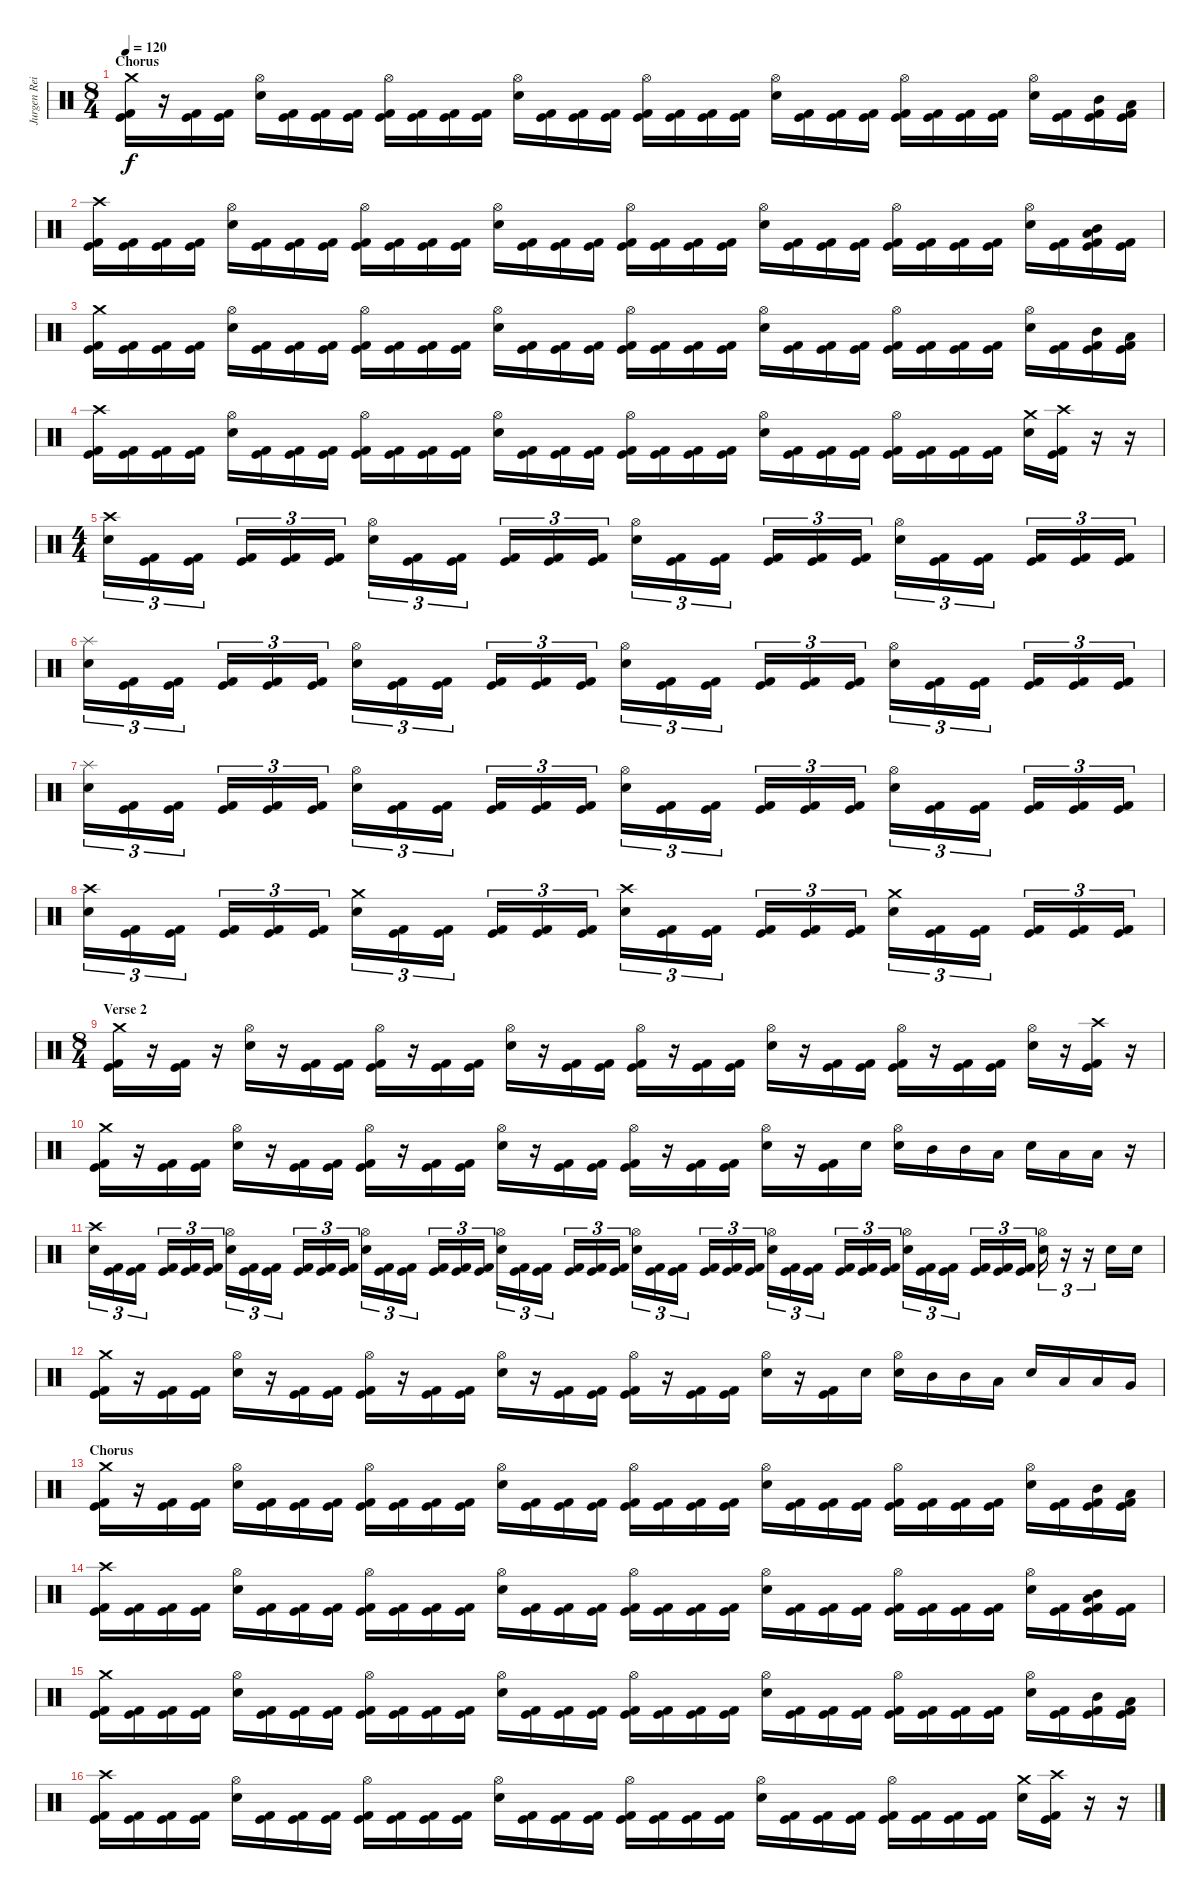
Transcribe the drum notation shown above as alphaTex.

\track ("Jurgen Reil" "Jurgen Rei") {instrument percussion}
\staff {score}
\articulation defaults
\ts (8 4)
\section ("" "Chorus")
\tempo 120
\clef neutral
\ks c
("Crash medium (hit)" "Kick (hit)" "Kick (hit) 2").16{dy f} r.16 ("Kick (hit)" "Kick (hit) 2").16 ("Kick (hit)" "Kick (hit) 2").16 ("Hi-Hat (open)" "Electric Snare (hit)").16 ("Kick (hit)" "Kick (hit) 2").16 ("Kick (hit)" "Kick (hit) 2").16 ("Kick (hit)" "Kick (hit) 2").16 ("Hi-Hat (open)" "Kick (hit)" "Kick (hit) 2").16 ("Kick (hit)" "Kick (hit) 2").16 ("Kick (hit)" "Kick (hit) 2").16 ("Kick (hit)" "Kick (hit) 2").16 ("Hi-Hat (open)" "Electric Snare (hit)").16 ("Kick (hit)" "Kick (hit) 2").16 ("Kick (hit)" "Kick (hit) 2").16 ("Kick (hit)" "Kick (hit) 2").16 ("Hi-Hat (open)" "Kick (hit)" "Kick (hit) 2").16 ("Kick (hit)" "Kick (hit) 2").16 ("Kick (hit)" "Kick (hit) 2").16 ("Kick (hit)" "Kick (hit) 2").16 ("Hi-Hat (open)" "Electric Snare (hit)").16 ("Kick (hit)" "Kick (hit) 2").16 ("Kick (hit)" "Kick (hit) 2").16 ("Kick (hit)" "Kick (hit) 2").16 ("Hi-Hat (open)" "Kick (hit)" "Kick (hit) 2").16 ("Kick (hit)" "Kick (hit) 2").16 ("Kick (hit)" "Kick (hit) 2").16 ("Kick (hit)" "Kick (hit) 2").16 ("Hi-Hat (open)" "Electric Snare (hit)").16 ("Kick (hit)" "Kick (hit) 2").16 ("Mid Tom (hit)" "Kick (hit)" "Kick (hit) 2").16 ("Low Tom (hit)" "Kick (hit)" "Kick (hit) 2").16 |
("Crash high (hit)" "Kick (hit)" "Kick (hit) 2").16 ("Kick (hit)" "Kick (hit) 2").16 ("Kick (hit)" "Kick (hit) 2").16 ("Kick (hit)" "Kick (hit) 2").16 ("Hi-Hat (open)" "Electric Snare (hit)").16 ("Kick (hit)" "Kick (hit) 2").16 ("Kick (hit)" "Kick (hit) 2").16 ("Kick (hit)" "Kick (hit) 2").16 ("Hi-Hat (open)" "Kick (hit)" "Kick (hit) 2").16 ("Kick (hit)" "Kick (hit) 2").16 ("Kick (hit)" "Kick (hit) 2").16 ("Kick (hit)" "Kick (hit) 2").16 ("Hi-Hat (open)" "Electric Snare (hit)").16 ("Kick (hit)" "Kick (hit) 2").16 ("Kick (hit)" "Kick (hit) 2").16 ("Kick (hit)" "Kick (hit) 2").16 ("Hi-Hat (open)" "Kick (hit)" "Kick (hit) 2").16 ("Kick (hit)" "Kick (hit) 2").16 ("Kick (hit)" "Kick (hit) 2").16 ("Kick (hit)" "Kick (hit) 2").16 ("Hi-Hat (open)" "Electric Snare (hit)").16 ("Kick (hit)" "Kick (hit) 2").16 ("Kick (hit)" "Kick (hit) 2").16 ("Kick (hit)" "Kick (hit) 2").16 ("Hi-Hat (open)" "Kick (hit)" "Kick (hit) 2").16 ("Kick (hit)" "Kick (hit) 2").16 ("Kick (hit)" "Kick (hit) 2").16 ("Kick (hit)" "Kick (hit) 2").16 ("Hi-Hat (open)" "Electric Snare (hit)").16 ("Kick (hit)" "Kick (hit) 2").16 ("Low Tom (hit)" "Mid Tom (hit)" "Kick (hit)" "Kick (hit) 2").16 ("Kick (hit)" "Kick (hit) 2").16 |
("Crash medium (hit)" "Kick (hit)" "Kick (hit) 2").16 ("Kick (hit)" "Kick (hit) 2").16 ("Kick (hit)" "Kick (hit) 2").16 ("Kick (hit)" "Kick (hit) 2").16 ("Hi-Hat (open)" "Electric Snare (hit)").16 ("Kick (hit)" "Kick (hit) 2").16 ("Kick (hit)" "Kick (hit) 2").16 ("Kick (hit)" "Kick (hit) 2").16 ("Hi-Hat (open)" "Kick (hit)" "Kick (hit) 2").16 ("Kick (hit)" "Kick (hit) 2").16 ("Kick (hit)" "Kick (hit) 2").16 ("Kick (hit)" "Kick (hit) 2").16 ("Hi-Hat (open)" "Electric Snare (hit)").16 ("Kick (hit)" "Kick (hit) 2").16 ("Kick (hit)" "Kick (hit) 2").16 ("Kick (hit)" "Kick (hit) 2").16 ("Hi-Hat (open)" "Kick (hit)" "Kick (hit) 2").16 ("Kick (hit)" "Kick (hit) 2").16 ("Kick (hit)" "Kick (hit) 2").16 ("Kick (hit)" "Kick (hit) 2").16 ("Hi-Hat (open)" "Electric Snare (hit)").16 ("Kick (hit)" "Kick (hit) 2").16 ("Kick (hit)" "Kick (hit) 2").16 ("Kick (hit)" "Kick (hit) 2").16 ("Hi-Hat (open)" "Kick (hit)" "Kick (hit) 2").16 ("Kick (hit)" "Kick (hit) 2").16 ("Kick (hit)" "Kick (hit) 2").16 ("Kick (hit)" "Kick (hit) 2").16 ("Hi-Hat (open)" "Electric Snare (hit)").16 ("Kick (hit)" "Kick (hit) 2").16 ("Mid Tom (hit)" "Kick (hit)" "Kick (hit) 2").16 ("Low Tom (hit)" "Kick (hit)" "Kick (hit) 2").16 |
("Crash high (hit)" "Kick (hit)" "Kick (hit) 2").16 ("Kick (hit)" "Kick (hit) 2").16 ("Kick (hit)" "Kick (hit) 2").16 ("Kick (hit)" "Kick (hit) 2").16 ("Hi-Hat (open)" "Electric Snare (hit)").16 ("Kick (hit)" "Kick (hit) 2").16 ("Kick (hit)" "Kick (hit) 2").16 ("Kick (hit)" "Kick (hit) 2").16 ("Hi-Hat (open)" "Kick (hit)" "Kick (hit) 2").16 ("Kick (hit)" "Kick (hit) 2").16 ("Kick (hit)" "Kick (hit) 2").16 ("Kick (hit)" "Kick (hit) 2").16 ("Hi-Hat (open)" "Electric Snare (hit)").16 ("Kick (hit)" "Kick (hit) 2").16 ("Kick (hit)" "Kick (hit) 2").16 ("Kick (hit)" "Kick (hit) 2").16 ("Hi-Hat (open)" "Kick (hit)" "Kick (hit) 2").16 ("Kick (hit)" "Kick (hit) 2").16 ("Kick (hit)" "Kick (hit) 2").16 ("Kick (hit)" "Kick (hit) 2").16 ("Hi-Hat (open)" "Electric Snare (hit)").16 ("Kick (hit)" "Kick (hit) 2").16 ("Kick (hit)" "Kick (hit) 2").16 ("Kick (hit)" "Kick (hit) 2").16 ("Hi-Hat (open)" "Kick (hit)" "Kick (hit) 2").16 ("Kick (hit)" "Kick (hit) 2").16 ("Kick (hit)" "Kick (hit) 2").16 ("Kick (hit)" "Kick (hit) 2").16 ("Crash medium (hit)" "Electric Snare (hit)").16 ("Crash high (hit)" "Kick (hit)" "Kick (hit) 2").16 r.16 r.16 |
\ts (4 4)
("Crash high (hit)" "Electric Snare (hit)").16{tu (3 2)} ("Kick (hit)" "Kick (hit) 2").16{tu (3 2)} ("Kick (hit)" "Kick (hit) 2").16{tu (3 2)} ("Kick (hit)" "Kick (hit) 2").16{tu (3 2)} ("Kick (hit)" "Kick (hit) 2").16{tu (3 2)} ("Kick (hit)" "Kick (hit) 2").16{tu (3 2)} ("Hi-Hat (open)" "Electric Snare (hit)").16{tu (3 2)} ("Kick (hit)" "Kick (hit) 2").16{tu (3 2)} ("Kick (hit)" "Kick (hit) 2").16{tu (3 2)} ("Kick (hit)" "Kick (hit) 2").16{tu (3 2)} ("Kick (hit)" "Kick (hit) 2").16{tu (3 2)} ("Kick (hit)" "Kick (hit) 2").16{tu (3 2)} ("Hi-Hat (open)" "Electric Snare (hit)").16{tu (3 2)} ("Kick (hit)" "Kick (hit) 2").16{tu (3 2)} ("Kick (hit)" "Kick (hit) 2").16{tu (3 2)} ("Kick (hit)" "Kick (hit) 2").16{tu (3 2)} ("Kick (hit)" "Kick (hit) 2").16{tu (3 2)} ("Kick (hit)" "Kick (hit) 2").16{tu (3 2)} ("Hi-Hat (open)" "Electric Snare (hit)").16{tu (3 2)} ("Kick (hit)" "Kick (hit) 2").16{tu (3 2)} ("Kick (hit)" "Kick (hit) 2").16{tu (3 2)} ("Kick (hit)" "Kick (hit) 2").16{tu (3 2)} ("Kick (hit)" "Kick (hit) 2").16{tu (3 2)} ("Kick (hit)" "Kick (hit) 2").16{tu (3 2)} |
("Splash (hit)" "Electric Snare (hit)").16{tu (3 2)} ("Kick (hit)" "Kick (hit) 2").16{tu (3 2)} ("Kick (hit)" "Kick (hit) 2").16{tu (3 2)} ("Kick (hit)" "Kick (hit) 2").16{tu (3 2)} ("Kick (hit)" "Kick (hit) 2").16{tu (3 2)} ("Kick (hit)" "Kick (hit) 2").16{tu (3 2)} ("Hi-Hat (open)" "Electric Snare (hit)").16{tu (3 2)} ("Kick (hit)" "Kick (hit) 2").16{tu (3 2)} ("Kick (hit)" "Kick (hit) 2").16{tu (3 2)} ("Kick (hit)" "Kick (hit) 2").16{tu (3 2)} ("Kick (hit)" "Kick (hit) 2").16{tu (3 2)} ("Kick (hit)" "Kick (hit) 2").16{tu (3 2)} ("Hi-Hat (open)" "Electric Snare (hit)").16{tu (3 2)} ("Kick (hit)" "Kick (hit) 2").16{tu (3 2)} ("Kick (hit)" "Kick (hit) 2").16{tu (3 2)} ("Kick (hit)" "Kick (hit) 2").16{tu (3 2)} ("Kick (hit)" "Kick (hit) 2").16{tu (3 2)} ("Kick (hit)" "Kick (hit) 2").16{tu (3 2)} ("Hi-Hat (open)" "Electric Snare (hit)").16{tu (3 2)} ("Kick (hit)" "Kick (hit) 2").16{tu (3 2)} ("Kick (hit)" "Kick (hit) 2").16{tu (3 2)} ("Kick (hit)" "Kick (hit) 2").16{tu (3 2)} ("Kick (hit)" "Kick (hit) 2").16{tu (3 2)} ("Kick (hit)" "Kick (hit) 2").16{tu (3 2)} |
("Splash (hit)" "Electric Snare (hit)").16{tu (3 2)} ("Kick (hit)" "Kick (hit) 2").16{tu (3 2)} ("Kick (hit)" "Kick (hit) 2").16{tu (3 2)} ("Kick (hit)" "Kick (hit) 2").16{tu (3 2)} ("Kick (hit)" "Kick (hit) 2").16{tu (3 2)} ("Kick (hit)" "Kick (hit) 2").16{tu (3 2)} ("Hi-Hat (open)" "Electric Snare (hit)").16{tu (3 2)} ("Kick (hit)" "Kick (hit) 2").16{tu (3 2)} ("Kick (hit)" "Kick (hit) 2").16{tu (3 2)} ("Kick (hit)" "Kick (hit) 2").16{tu (3 2)} ("Kick (hit)" "Kick (hit) 2").16{tu (3 2)} ("Kick (hit)" "Kick (hit) 2").16{tu (3 2)} ("Hi-Hat (open)" "Electric Snare (hit)").16{tu (3 2)} ("Kick (hit)" "Kick (hit) 2").16{tu (3 2)} ("Kick (hit)" "Kick (hit) 2").16{tu (3 2)} ("Kick (hit)" "Kick (hit) 2").16{tu (3 2)} ("Kick (hit)" "Kick (hit) 2").16{tu (3 2)} ("Kick (hit)" "Kick (hit) 2").16{tu (3 2)} ("Hi-Hat (open)" "Electric Snare (hit)").16{tu (3 2)} ("Kick (hit)" "Kick (hit) 2").16{tu (3 2)} ("Kick (hit)" "Kick (hit) 2").16{tu (3 2)} ("Kick (hit)" "Kick (hit) 2").16{tu (3 2)} ("Kick (hit)" "Kick (hit) 2").16{tu (3 2)} ("Kick (hit)" "Kick (hit) 2").16{tu (3 2)} |
("Crash high (hit)" "Electric Snare (hit)").16{tu (3 2)} ("Kick (hit)" "Kick (hit) 2").16{tu (3 2)} ("Kick (hit)" "Kick (hit) 2").16{tu (3 2)} ("Kick (hit)" "Kick (hit) 2").16{tu (3 2)} ("Kick (hit)" "Kick (hit) 2").16{tu (3 2)} ("Kick (hit)" "Kick (hit) 2").16{tu (3 2)} ("Crash medium (hit)" "Electric Snare (hit)").16{tu (3 2)} ("Kick (hit)" "Kick (hit) 2").16{tu (3 2)} ("Kick (hit)" "Kick (hit) 2").16{tu (3 2)} ("Kick (hit)" "Kick (hit) 2").16{tu (3 2)} ("Kick (hit)" "Kick (hit) 2").16{tu (3 2)} ("Kick (hit)" "Kick (hit) 2").16{tu (3 2)} ("Crash high (hit)" "Electric Snare (hit)").16{tu (3 2)} ("Kick (hit)" "Kick (hit) 2").16{tu (3 2)} ("Kick (hit)" "Kick (hit) 2").16{tu (3 2)} ("Kick (hit)" "Kick (hit) 2").16{tu (3 2)} ("Kick (hit)" "Kick (hit) 2").16{tu (3 2)} ("Kick (hit)" "Kick (hit) 2").16{tu (3 2)} ("Crash medium (hit)" "Electric Snare (hit)").16{tu (3 2)} ("Kick (hit)" "Kick (hit) 2").16{tu (3 2)} ("Kick (hit)" "Kick (hit) 2").16{tu (3 2)} ("Kick (hit)" "Kick (hit) 2").16{tu (3 2)} ("Kick (hit)" "Kick (hit) 2").16{tu (3 2)} ("Kick (hit)" "Kick (hit) 2").16{tu (3 2)} |
\ts (8 4)
\section ("" "Verse 2")
("Crash medium (hit)" "Kick (hit)" "Kick (hit) 2").16 r.16 ("Kick (hit)" "Kick (hit) 2").16 r.16 ("Hi-Hat (open)" "Electric Snare (hit)").16 r.16 ("Kick (hit)" "Kick (hit) 2").16 ("Kick (hit)" "Kick (hit) 2").16 ("Hi-Hat (open)" "Kick (hit)" "Kick (hit) 2").16 r.16 ("Kick (hit)" "Kick (hit) 2").16 ("Kick (hit)" "Kick (hit) 2").16 ("Hi-Hat (open)" "Electric Snare (hit)").16 r.16 ("Kick (hit)" "Kick (hit) 2").16 ("Kick (hit)" "Kick (hit) 2").16 ("Hi-Hat (open)" "Kick (hit)" "Kick (hit) 2").16 r.16 ("Kick (hit)" "Kick (hit) 2").16 ("Kick (hit)" "Kick (hit) 2").16 ("Hi-Hat (open)" "Electric Snare (hit)").16 r.16 ("Kick (hit)" "Kick (hit) 2").16 ("Kick (hit)" "Kick (hit) 2").16 ("Hi-Hat (open)" "Kick (hit)" "Kick (hit) 2").16 r.16 ("Kick (hit)" "Kick (hit) 2").16 ("Kick (hit)" "Kick (hit) 2").16 ("Hi-Hat (open)" "Electric Snare (hit)").16 r.16 ("Crash high (hit)" "Kick (hit)" "Kick (hit) 2").16 r.16 |
("Crash medium (hit)" "Kick (hit)" "Kick (hit) 2").16 r.16 ("Kick (hit)" "Kick (hit) 2").16 ("Kick (hit)" "Kick (hit) 2").16 ("Hi-Hat (open)" "Electric Snare (hit)").16 r.16 ("Kick (hit)" "Kick (hit) 2").16 ("Kick (hit)" "Kick (hit) 2").16 ("Hi-Hat (open)" "Kick (hit)" "Kick (hit) 2").16 r.16 ("Kick (hit)" "Kick (hit) 2").16 ("Kick (hit)" "Kick (hit) 2").16 ("Hi-Hat (open)" "Electric Snare (hit)").16 r.16 ("Kick (hit)" "Kick (hit) 2").16 ("Kick (hit)" "Kick (hit) 2").16 ("Hi-Hat (open)" "Kick (hit)" "Kick (hit) 2").16 r.16 ("Kick (hit)" "Kick (hit) 2").16 ("Kick (hit)" "Kick (hit) 2").16 ("Hi-Hat (open)" "Electric Snare (hit)").16 r.16 ("Kick (hit)" "Kick (hit) 2").16 "Electric Snare (hit)".16 ("Hi-Hat (open)" "Electric Snare (hit)").16 "Mid Tom (hit)".16 "Mid Tom (hit)".16 "Low Tom (hit)".16 "Electric Snare (hit)".16 "Low Tom (hit)".16 "Low Tom (hit)".16 r.16 |
("Crash high (hit)" "Electric Snare (hit)").16{tu (3 2)} ("Kick (hit)" "Kick (hit) 2").16{tu (3 2)} ("Kick (hit)" "Kick (hit) 2").16{tu (3 2)} ("Kick (hit)" "Kick (hit) 2").16{tu (3 2)} ("Kick (hit)" "Kick (hit) 2").16{tu (3 2)} ("Kick (hit)" "Kick (hit) 2").16{tu (3 2)} ("Hi-Hat (open)" "Electric Snare (hit)").16{tu (3 2)} ("Kick (hit)" "Kick (hit) 2").16{tu (3 2)} ("Kick (hit)" "Kick (hit) 2").16{tu (3 2)} ("Kick (hit)" "Kick (hit) 2").16{tu (3 2)} ("Kick (hit)" "Kick (hit) 2").16{tu (3 2)} ("Kick (hit)" "Kick (hit) 2").16{tu (3 2)} ("Hi-Hat (open)" "Electric Snare (hit)").16{tu (3 2)} ("Kick (hit)" "Kick (hit) 2").16{tu (3 2)} ("Kick (hit)" "Kick (hit) 2").16{tu (3 2)} ("Kick (hit)" "Kick (hit) 2").16{tu (3 2)} ("Kick (hit)" "Kick (hit) 2").16{tu (3 2)} ("Kick (hit)" "Kick (hit) 2").16{tu (3 2)} ("Hi-Hat (open)" "Electric Snare (hit)").16{tu (3 2)} ("Kick (hit)" "Kick (hit) 2").16{tu (3 2)} ("Kick (hit)" "Kick (hit) 2").16{tu (3 2)} ("Kick (hit)" "Kick (hit) 2").16{tu (3 2)} ("Kick (hit)" "Kick (hit) 2").16{tu (3 2)} ("Kick (hit)" "Kick (hit) 2").16{tu (3 2)} ("Hi-Hat (open)" "Electric Snare (hit)").16{tu (3 2)} ("Kick (hit)" "Kick (hit) 2").16{tu (3 2)} ("Kick (hit)" "Kick (hit) 2").16{tu (3 2)} ("Kick (hit)" "Kick (hit) 2").16{tu (3 2)} ("Kick (hit)" "Kick (hit) 2").16{tu (3 2)} ("Kick (hit)" "Kick (hit) 2").16{tu (3 2)} ("Hi-Hat (open)" "Electric Snare (hit)").16{tu (3 2)} ("Kick (hit)" "Kick (hit) 2").16{tu (3 2)} ("Kick (hit)" "Kick (hit) 2").16{tu (3 2)} ("Kick (hit)" "Kick (hit) 2").16{tu (3 2)} ("Kick (hit)" "Kick (hit) 2").16{tu (3 2)} ("Kick (hit)" "Kick (hit) 2").16{tu (3 2)} ("Hi-Hat (open)" "Electric Snare (hit)").16{tu (3 2)} ("Kick (hit)" "Kick (hit) 2").16{tu (3 2)} ("Kick (hit)" "Kick (hit) 2").16{tu (3 2)} ("Kick (hit)" "Kick (hit) 2").16{tu (3 2)} ("Kick (hit)" "Kick (hit) 2").16{tu (3 2)} ("Kick (hit)" "Kick (hit) 2").16{tu (3 2)} ("Hi-Hat (open)" "Electric Snare (hit)").16{tu (3 2)} r.16{tu (3 2)} r.16{tu (3 2)} "Electric Snare (hit)".16 "Electric Snare (hit)".16 |
("Crash medium (hit)" "Kick (hit)" "Kick (hit) 2").16 r.16 ("Kick (hit)" "Kick (hit) 2").16 ("Kick (hit)" "Kick (hit) 2").16 ("Hi-Hat (open)" "Electric Snare (hit)").16 r.16 ("Kick (hit)" "Kick (hit) 2").16 ("Kick (hit)" "Kick (hit) 2").16 ("Hi-Hat (open)" "Kick (hit)" "Kick (hit) 2").16 r.16 ("Kick (hit)" "Kick (hit) 2").16 ("Kick (hit)" "Kick (hit) 2").16 ("Hi-Hat (open)" "Electric Snare (hit)").16 r.16 ("Kick (hit)" "Kick (hit) 2").16 ("Kick (hit)" "Kick (hit) 2").16 ("Hi-Hat (open)" "Kick (hit)" "Kick (hit) 2").16 r.16 ("Kick (hit)" "Kick (hit) 2").16 ("Kick (hit)" "Kick (hit) 2").16 ("Hi-Hat (open)" "Electric Snare (hit)").16 r.16 ("Kick (hit)" "Kick (hit) 2").16 "Electric Snare (hit)".16 ("Hi-Hat (open)" "Electric Snare (hit)").16 "Mid Tom (hit)".16 "Mid Tom (hit)".16 "Low Tom (hit)".16 "Electric Snare (hit)".16 "Low Tom (hit)".16 "Low Tom (hit)".16 "Very Low Tom (hit)".16 |
\section ("" "Chorus")
("Crash medium (hit)" "Kick (hit)" "Kick (hit) 2").16 r.16 ("Kick (hit)" "Kick (hit) 2").16 ("Kick (hit)" "Kick (hit) 2").16 ("Hi-Hat (open)" "Electric Snare (hit)").16 ("Kick (hit)" "Kick (hit) 2").16 ("Kick (hit)" "Kick (hit) 2").16 ("Kick (hit)" "Kick (hit) 2").16 ("Hi-Hat (open)" "Kick (hit)" "Kick (hit) 2").16 ("Kick (hit)" "Kick (hit) 2").16 ("Kick (hit)" "Kick (hit) 2").16 ("Kick (hit)" "Kick (hit) 2").16 ("Hi-Hat (open)" "Electric Snare (hit)").16 ("Kick (hit)" "Kick (hit) 2").16 ("Kick (hit)" "Kick (hit) 2").16 ("Kick (hit)" "Kick (hit) 2").16 ("Hi-Hat (open)" "Kick (hit)" "Kick (hit) 2").16 ("Kick (hit)" "Kick (hit) 2").16 ("Kick (hit)" "Kick (hit) 2").16 ("Kick (hit)" "Kick (hit) 2").16 ("Hi-Hat (open)" "Electric Snare (hit)").16 ("Kick (hit)" "Kick (hit) 2").16 ("Kick (hit)" "Kick (hit) 2").16 ("Kick (hit)" "Kick (hit) 2").16 ("Hi-Hat (open)" "Kick (hit)" "Kick (hit) 2").16 ("Kick (hit)" "Kick (hit) 2").16 ("Kick (hit)" "Kick (hit) 2").16 ("Kick (hit)" "Kick (hit) 2").16 ("Hi-Hat (open)" "Electric Snare (hit)").16 ("Kick (hit)" "Kick (hit) 2").16 ("Mid Tom (hit)" "Kick (hit)" "Kick (hit) 2").16 ("Low Tom (hit)" "Kick (hit)" "Kick (hit) 2").16 |
("Crash high (hit)" "Kick (hit)" "Kick (hit) 2").16 ("Kick (hit)" "Kick (hit) 2").16 ("Kick (hit)" "Kick (hit) 2").16 ("Kick (hit)" "Kick (hit) 2").16 ("Hi-Hat (open)" "Electric Snare (hit)").16 ("Kick (hit)" "Kick (hit) 2").16 ("Kick (hit)" "Kick (hit) 2").16 ("Kick (hit)" "Kick (hit) 2").16 ("Hi-Hat (open)" "Kick (hit)" "Kick (hit) 2").16 ("Kick (hit)" "Kick (hit) 2").16 ("Kick (hit)" "Kick (hit) 2").16 ("Kick (hit)" "Kick (hit) 2").16 ("Hi-Hat (open)" "Electric Snare (hit)").16 ("Kick (hit)" "Kick (hit) 2").16 ("Kick (hit)" "Kick (hit) 2").16 ("Kick (hit)" "Kick (hit) 2").16 ("Hi-Hat (open)" "Kick (hit)" "Kick (hit) 2").16 ("Kick (hit)" "Kick (hit) 2").16 ("Kick (hit)" "Kick (hit) 2").16 ("Kick (hit)" "Kick (hit) 2").16 ("Hi-Hat (open)" "Electric Snare (hit)").16 ("Kick (hit)" "Kick (hit) 2").16 ("Kick (hit)" "Kick (hit) 2").16 ("Kick (hit)" "Kick (hit) 2").16 ("Hi-Hat (open)" "Kick (hit)" "Kick (hit) 2").16 ("Kick (hit)" "Kick (hit) 2").16 ("Kick (hit)" "Kick (hit) 2").16 ("Kick (hit)" "Kick (hit) 2").16 ("Hi-Hat (open)" "Electric Snare (hit)").16 ("Kick (hit)" "Kick (hit) 2").16 ("Low Tom (hit)" "Mid Tom (hit)" "Kick (hit)" "Kick (hit) 2").16 ("Kick (hit)" "Kick (hit) 2").16 |
("Crash medium (hit)" "Kick (hit)" "Kick (hit) 2").16 ("Kick (hit)" "Kick (hit) 2").16 ("Kick (hit)" "Kick (hit) 2").16 ("Kick (hit)" "Kick (hit) 2").16 ("Hi-Hat (open)" "Electric Snare (hit)").16 ("Kick (hit)" "Kick (hit) 2").16 ("Kick (hit)" "Kick (hit) 2").16 ("Kick (hit)" "Kick (hit) 2").16 ("Hi-Hat (open)" "Kick (hit)" "Kick (hit) 2").16 ("Kick (hit)" "Kick (hit) 2").16 ("Kick (hit)" "Kick (hit) 2").16 ("Kick (hit)" "Kick (hit) 2").16 ("Hi-Hat (open)" "Electric Snare (hit)").16 ("Kick (hit)" "Kick (hit) 2").16 ("Kick (hit)" "Kick (hit) 2").16 ("Kick (hit)" "Kick (hit) 2").16 ("Hi-Hat (open)" "Kick (hit)" "Kick (hit) 2").16 ("Kick (hit)" "Kick (hit) 2").16 ("Kick (hit)" "Kick (hit) 2").16 ("Kick (hit)" "Kick (hit) 2").16 ("Hi-Hat (open)" "Electric Snare (hit)").16 ("Kick (hit)" "Kick (hit) 2").16 ("Kick (hit)" "Kick (hit) 2").16 ("Kick (hit)" "Kick (hit) 2").16 ("Hi-Hat (open)" "Kick (hit)" "Kick (hit) 2").16 ("Kick (hit)" "Kick (hit) 2").16 ("Kick (hit)" "Kick (hit) 2").16 ("Kick (hit)" "Kick (hit) 2").16 ("Hi-Hat (open)" "Electric Snare (hit)").16 ("Kick (hit)" "Kick (hit) 2").16 ("Mid Tom (hit)" "Kick (hit)" "Kick (hit) 2").16 ("Low Tom (hit)" "Kick (hit)" "Kick (hit) 2").16 |
("Crash high (hit)" "Kick (hit)" "Kick (hit) 2").16 ("Kick (hit)" "Kick (hit) 2").16 ("Kick (hit)" "Kick (hit) 2").16 ("Kick (hit)" "Kick (hit) 2").16 ("Hi-Hat (open)" "Electric Snare (hit)").16 ("Kick (hit)" "Kick (hit) 2").16 ("Kick (hit)" "Kick (hit) 2").16 ("Kick (hit)" "Kick (hit) 2").16 ("Hi-Hat (open)" "Kick (hit)" "Kick (hit) 2").16 ("Kick (hit)" "Kick (hit) 2").16 ("Kick (hit)" "Kick (hit) 2").16 ("Kick (hit)" "Kick (hit) 2").16 ("Hi-Hat (open)" "Electric Snare (hit)").16 ("Kick (hit)" "Kick (hit) 2").16 ("Kick (hit)" "Kick (hit) 2").16 ("Kick (hit)" "Kick (hit) 2").16 ("Hi-Hat (open)" "Kick (hit)" "Kick (hit) 2").16 ("Kick (hit)" "Kick (hit) 2").16 ("Kick (hit)" "Kick (hit) 2").16 ("Kick (hit)" "Kick (hit) 2").16 ("Hi-Hat (open)" "Electric Snare (hit)").16 ("Kick (hit)" "Kick (hit) 2").16 ("Kick (hit)" "Kick (hit) 2").16 ("Kick (hit)" "Kick (hit) 2").16 ("Hi-Hat (open)" "Kick (hit)" "Kick (hit) 2").16 ("Kick (hit)" "Kick (hit) 2").16 ("Kick (hit)" "Kick (hit) 2").16 ("Kick (hit)" "Kick (hit) 2").16 ("Crash medium (hit)" "Electric Snare (hit)").16 ("Crash high (hit)" "Kick (hit)" "Kick (hit) 2").16 r.16 r.16
